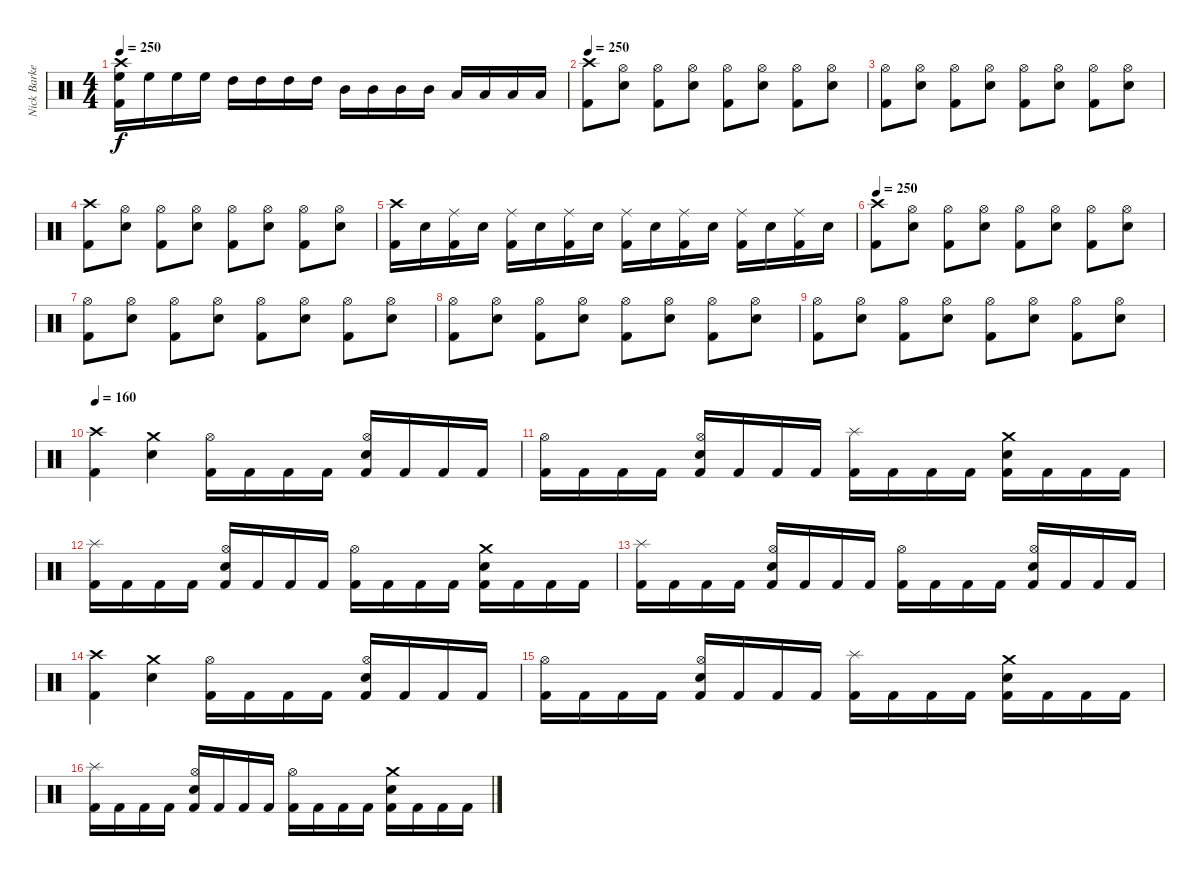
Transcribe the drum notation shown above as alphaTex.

\track ("Nick Barker" "Nick Barke") {instrument percussion}
\staff {score}
\articulation defaults
\ts (4 4)
\tempo 250
\clef neutral
\ks c
("Crash high (hit)" "High Floor Tom (hit)" "Kick (hit) 2").16{dy f} "High Floor Tom (hit)".16 "High Floor Tom (hit)".16 "High Floor Tom (hit)".16 "High Tom (hit)".16 "High Tom (hit)".16 "High Tom (hit)".16 "High Tom (hit)".16 "Mid Tom (hit)".16 "Mid Tom (hit)".16 "Mid Tom (hit)".16 "Mid Tom (hit)".16 "Low Tom (hit)".16 "Low Tom (hit)".16 "Low Tom (hit)".16 "Low Tom (hit)".16 |
\tempo 250
("Crash high (hit)" "Kick (hit) 2").8 ("Hi-Hat (open)" "Electric Snare (hit)").8 ("Hi-Hat (open)" "Kick (hit) 2").8 ("Hi-Hat (open)" "Electric Snare (hit)").8 ("Hi-Hat (open)" "Kick (hit) 2").8 ("Hi-Hat (open)" "Electric Snare (hit)").8 ("Hi-Hat (open)" "Kick (hit) 2").8 ("Hi-Hat (open)" "Electric Snare (hit)").8 |
("Hi-Hat (open)" "Kick (hit) 2").8 ("Hi-Hat (open)" "Electric Snare (hit)").8 ("Hi-Hat (open)" "Kick (hit) 2").8 ("Hi-Hat (open)" "Electric Snare (hit)").8 ("Hi-Hat (open)" "Kick (hit) 2").8 ("Hi-Hat (open)" "Electric Snare (hit)").8 ("Hi-Hat (open)" "Kick (hit) 2").8 ("Hi-Hat (open)" "Electric Snare (hit)").8 |
("Crash high (hit)" "Kick (hit) 2").8 ("Hi-Hat (open)" "Electric Snare (hit)").8 ("Hi-Hat (open)" "Kick (hit) 2").8 ("Hi-Hat (open)" "Electric Snare (hit)").8 ("Hi-Hat (open)" "Kick (hit) 2").8 ("Hi-Hat (open)" "Electric Snare (hit)").8 ("Hi-Hat (open)" "Kick (hit) 2").8 ("Hi-Hat (open)" "Electric Snare (hit)").8 |
("Crash high (hit)" "Kick (hit) 2").16 "Electric Snare (hit)".16 ("Ride (middle)" "Kick (hit) 2").16 "Electric Snare (hit)".16 ("Ride (middle)" "Kick (hit) 2").16 "Electric Snare (hit)".16 ("Ride (middle)" "Kick (hit) 2").16 "Electric Snare (hit)".16 ("Ride (middle)" "Kick (hit) 2").16 "Electric Snare (hit)".16 ("Ride (middle)" "Kick (hit) 2").16 "Electric Snare (hit)".16 ("Ride (middle)" "Kick (hit) 2").16 "Electric Snare (hit)".16 ("Ride (middle)" "Kick (hit) 2").16 "Electric Snare (hit)".16 |
\tempo 250
("Crash high (hit)" "Kick (hit) 2").8 ("Hi-Hat (open)" "Electric Snare (hit)").8 ("Hi-Hat (open)" "Kick (hit) 2").8 ("Hi-Hat (open)" "Electric Snare (hit)").8 ("Hi-Hat (open)" "Kick (hit) 2").8 ("Hi-Hat (open)" "Electric Snare (hit)").8 ("Hi-Hat (open)" "Kick (hit) 2").8 ("Hi-Hat (open)" "Electric Snare (hit)").8 |
("Hi-Hat (open)" "Kick (hit) 2").8 ("Hi-Hat (open)" "Electric Snare (hit)").8 ("Hi-Hat (open)" "Kick (hit) 2").8 ("Hi-Hat (open)" "Electric Snare (hit)").8 ("Hi-Hat (open)" "Kick (hit) 2").8 ("Hi-Hat (open)" "Electric Snare (hit)").8 ("Hi-Hat (open)" "Kick (hit) 2").8 ("Hi-Hat (open)" "Electric Snare (hit)").8 |
("Hi-Hat (open)" "Kick (hit) 2").8 ("Hi-Hat (open)" "Electric Snare (hit)").8 ("Hi-Hat (open)" "Kick (hit) 2").8 ("Hi-Hat (open)" "Electric Snare (hit)").8 ("Hi-Hat (open)" "Kick (hit) 2").8 ("Hi-Hat (open)" "Electric Snare (hit)").8 ("Hi-Hat (open)" "Kick (hit) 2").8 ("Hi-Hat (open)" "Electric Snare (hit)").8 |
("Hi-Hat (open)" "Kick (hit) 2").8 ("Hi-Hat (open)" "Electric Snare (hit)").8 ("Hi-Hat (open)" "Kick (hit) 2").8 ("Hi-Hat (open)" "Electric Snare (hit)").8 ("Hi-Hat (open)" "Kick (hit) 2").8 ("Hi-Hat (open)" "Electric Snare (hit)").8 ("Hi-Hat (open)" "Kick (hit) 2").8 ("Hi-Hat (open)" "Electric Snare (hit)").8 |
\section ("" "")
\tempo 160
("Crash high (hit)" "Kick (hit) 2").4 ("Crash medium (hit)" "Electric Snare (hit)").4 ("Hi-Hat (open)" "Kick (hit) 2").16 "Kick (hit) 2".16 "Kick (hit) 2".16 "Kick (hit) 2".16 ("Hi-Hat (open)" "Electric Snare (hit)" "Kick (hit) 2").16 "Kick (hit) 2".16 "Kick (hit) 2".16 "Kick (hit) 2".16 |
("Hi-Hat (open)" "Kick (hit) 2").16 "Kick (hit) 2".16 "Kick (hit) 2".16 "Kick (hit) 2".16 ("Hi-Hat (open)" "Electric Snare (hit)" "Kick (hit) 2").16 "Kick (hit) 2".16 "Kick (hit) 2".16 "Kick (hit) 2".16 ("Splash (hit)" "Kick (hit) 2").16 "Kick (hit) 2".16 "Kick (hit) 2".16 "Kick (hit) 2".16 ("Crash medium (hit)" "Electric Snare (hit)" "Kick (hit) 2").16 "Kick (hit) 2".16 "Kick (hit) 2".16 "Kick (hit) 2".16 |
("Splash (hit)" "Kick (hit) 2").16 "Kick (hit) 2".16 "Kick (hit) 2".16 "Kick (hit) 2".16 ("Hi-Hat (open)" "Electric Snare (hit)" "Kick (hit) 2").16 "Kick (hit) 2".16 "Kick (hit) 2".16 "Kick (hit) 2".16 ("Hi-Hat (open)" "Kick (hit) 2").16 "Kick (hit) 2".16 "Kick (hit) 2".16 "Kick (hit) 2".16 ("Crash medium (hit)" "Electric Snare (hit)" "Kick (hit) 2").16 "Kick (hit) 2".16 "Kick (hit) 2".16 "Kick (hit) 2".16 |
("Splash (hit)" "Kick (hit) 2").16 "Kick (hit) 2".16 "Kick (hit) 2".16 "Kick (hit) 2".16 ("Hi-Hat (open)" "Electric Snare (hit)" "Kick (hit) 2").16 "Kick (hit) 2".16 "Kick (hit) 2".16 "Kick (hit) 2".16 ("Hi-Hat (open)" "Kick (hit) 2").16 "Kick (hit) 2".16 "Kick (hit) 2".16 "Kick (hit) 2".16 ("Hi-Hat (open)" "Electric Snare (hit)" "Kick (hit) 2").16 "Kick (hit) 2".16 "Kick (hit) 2".16 "Kick (hit) 2".16 |
("Crash high (hit)" "Kick (hit) 2").4 ("Crash medium (hit)" "Electric Snare (hit)").4 ("Hi-Hat (open)" "Kick (hit) 2").16 "Kick (hit) 2".16 "Kick (hit) 2".16 "Kick (hit) 2".16 ("Hi-Hat (open)" "Electric Snare (hit)" "Kick (hit) 2").16 "Kick (hit) 2".16 "Kick (hit) 2".16 "Kick (hit) 2".16 |
("Hi-Hat (open)" "Kick (hit) 2").16 "Kick (hit) 2".16 "Kick (hit) 2".16 "Kick (hit) 2".16 ("Hi-Hat (open)" "Electric Snare (hit)" "Kick (hit) 2").16 "Kick (hit) 2".16 "Kick (hit) 2".16 "Kick (hit) 2".16 ("Splash (hit)" "Kick (hit) 2").16 "Kick (hit) 2".16 "Kick (hit) 2".16 "Kick (hit) 2".16 ("Crash medium (hit)" "Electric Snare (hit)" "Kick (hit) 2").16 "Kick (hit) 2".16 "Kick (hit) 2".16 "Kick (hit) 2".16 |
("Splash (hit)" "Kick (hit) 2").16 "Kick (hit) 2".16 "Kick (hit) 2".16 "Kick (hit) 2".16 ("Hi-Hat (open)" "Electric Snare (hit)" "Kick (hit) 2").16 "Kick (hit) 2".16 "Kick (hit) 2".16 "Kick (hit) 2".16 ("Hi-Hat (open)" "Kick (hit) 2").16 "Kick (hit) 2".16 "Kick (hit) 2".16 "Kick (hit) 2".16 ("Crash medium (hit)" "Electric Snare (hit)" "Kick (hit) 2").16 "Kick (hit) 2".16 "Kick (hit) 2".16 "Kick (hit) 2".16
